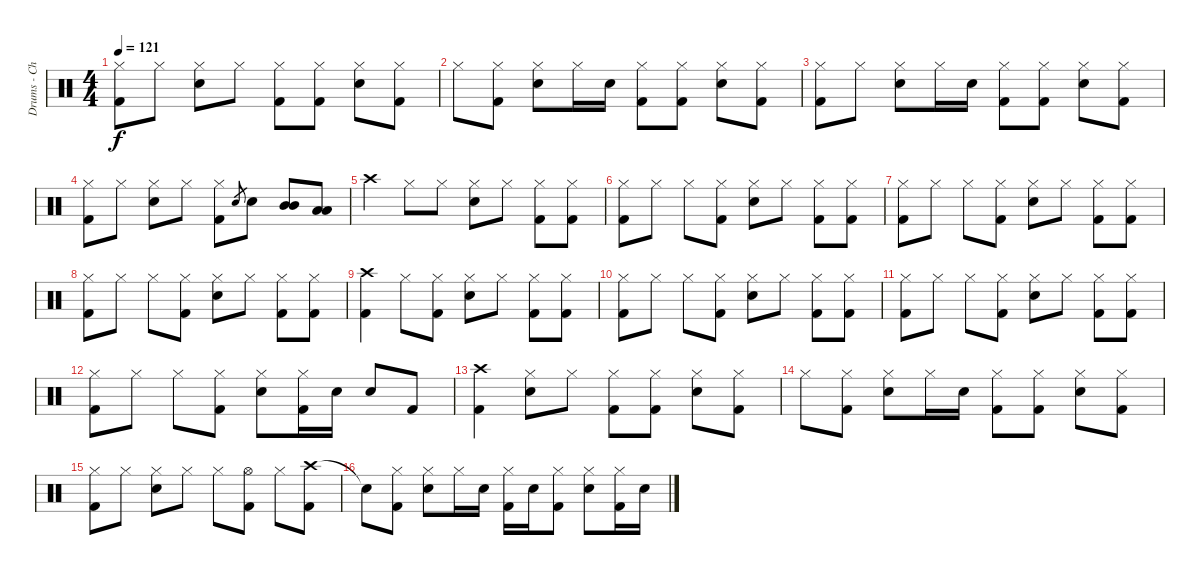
\track ("Drums - Chad" "Drums - Ch") {instrument percussion}
\staff {score}
\articulation defaults
\ts (4 4)
\tempo 121
\clef neutral
\ks c
("Hi-Hat (closed)" "Kick (hit) 2").8{dy f} "Hi-Hat (closed)".8 ("Hi-Hat (closed)" "Electric Snare (hit)").8 "Hi-Hat (closed)".8 ("Hi-Hat (closed)" "Kick (hit) 2").8 ("Hi-Hat (closed)" "Kick (hit) 2").8 ("Hi-Hat (closed)" "Electric Snare (hit)").8 ("Hi-Hat (closed)" "Kick (hit) 2").8 |
"Hi-Hat (closed)".8 ("Hi-Hat (closed)" "Kick (hit) 2").8 ("Hi-Hat (closed)" "Electric Snare (hit)").8 "Hi-Hat (closed)".16 "Electric Snare (hit)".16 ("Hi-Hat (closed)" "Kick (hit) 2").8 ("Hi-Hat (closed)" "Kick (hit) 2").8 ("Hi-Hat (closed)" "Electric Snare (hit)").8 ("Hi-Hat (closed)" "Kick (hit) 2").8 |
("Hi-Hat (closed)" "Kick (hit) 2").8 "Hi-Hat (closed)".8 ("Hi-Hat (closed)" "Electric Snare (hit)").8 "Hi-Hat (closed)".16 "Electric Snare (hit)".16 ("Hi-Hat (closed)" "Kick (hit) 2").8 ("Hi-Hat (closed)" "Kick (hit) 2").8 ("Hi-Hat (closed)" "Electric Snare (hit)").8 ("Hi-Hat (closed)" "Kick (hit) 2").8 |
("Hi-Hat (closed)" "Kick (hit) 2").8 "Hi-Hat (closed)".8 ("Hi-Hat (closed)" "Electric Snare (hit)").8 "Hi-Hat (closed)".8 ("Hi-Hat (closed)" "Kick (hit) 2").8 "Electric Snare (hit)".8{gr} "Electric Snare (hit)".8 ("Mid Tom (hit)" "Mid Tom (hit)").8 ("Low Tom (hit)" "Low Tom (hit)").8 |
"Crash high (hit)".4 "Hi-Hat (closed)".8 "Hi-Hat (closed)".8 ("Hi-Hat (closed)" "Electric Snare (hit)").8 "Hi-Hat (closed)".8 ("Hi-Hat (closed)" "Kick (hit) 2").8 ("Hi-Hat (closed)" "Kick (hit) 2").8 |
("Hi-Hat (closed)" "Kick (hit) 2").8 "Hi-Hat (closed)".8 "Hi-Hat (closed)".8 ("Hi-Hat (closed)" "Kick (hit) 2").8 ("Hi-Hat (closed)" "Electric Snare (hit)").8 "Hi-Hat (closed)".8 ("Hi-Hat (closed)" "Kick (hit) 2").8 ("Hi-Hat (closed)" "Kick (hit) 2").8 |
("Hi-Hat (closed)" "Kick (hit) 2").8 "Hi-Hat (closed)".8 "Hi-Hat (closed)".8 ("Hi-Hat (closed)" "Kick (hit) 2").8 ("Hi-Hat (closed)" "Electric Snare (hit)").8 "Hi-Hat (closed)".8 ("Hi-Hat (closed)" "Kick (hit) 2").8 ("Hi-Hat (closed)" "Kick (hit) 2").8 |
("Hi-Hat (closed)" "Kick (hit) 2").8 "Hi-Hat (closed)".8 "Hi-Hat (closed)".8 ("Hi-Hat (closed)" "Kick (hit) 2").8 ("Hi-Hat (closed)" "Electric Snare (hit)").8 "Hi-Hat (closed)".8 ("Hi-Hat (closed)" "Kick (hit) 2").8 ("Hi-Hat (closed)" "Kick (hit) 2").8 |
("Crash high (hit)" "Kick (hit) 2").4 "Hi-Hat (closed)".8 ("Hi-Hat (closed)" "Kick (hit) 2").8 ("Hi-Hat (closed)" "Electric Snare (hit)").8 "Hi-Hat (closed)".8 ("Hi-Hat (closed)" "Kick (hit) 2").8 ("Hi-Hat (closed)" "Kick (hit) 2").8 |
("Hi-Hat (closed)" "Kick (hit) 2").8 "Hi-Hat (closed)".8 "Hi-Hat (closed)".8 ("Hi-Hat (closed)" "Kick (hit) 2").8 ("Hi-Hat (closed)" "Electric Snare (hit)").8 "Hi-Hat (closed)".8 ("Hi-Hat (closed)" "Kick (hit) 2").8 ("Hi-Hat (closed)" "Kick (hit) 2").8 |
("Hi-Hat (closed)" "Kick (hit) 2").8 "Hi-Hat (closed)".8 "Hi-Hat (closed)".8 ("Hi-Hat (closed)" "Kick (hit) 2").8 ("Hi-Hat (closed)" "Electric Snare (hit)").8 "Hi-Hat (closed)".8 ("Hi-Hat (closed)" "Kick (hit) 2").8 ("Hi-Hat (closed)" "Kick (hit) 2").8 |
("Hi-Hat (closed)" "Kick (hit) 2").8 "Hi-Hat (closed)".8 "Hi-Hat (closed)".8 ("Hi-Hat (closed)" "Kick (hit) 2").8 ("Hi-Hat (closed)" "Electric Snare (hit)").8 ("Hi-Hat (closed)" "Kick (hit) 2").16 "Electric Snare (hit)".16 "Electric Snare (hit)".8 "Kick (hit) 2".8 |
("Crash high (hit)" "Kick (hit) 2").4 ("Hi-Hat (closed)" "Electric Snare (hit)").8 "Hi-Hat (closed)".8 ("Hi-Hat (closed)" "Kick (hit) 2").8 ("Hi-Hat (closed)" "Kick (hit) 2").8 ("Hi-Hat (closed)" "Electric Snare (hit)").8 ("Hi-Hat (closed)" "Kick (hit) 2").8 |
"Hi-Hat (closed)".8 ("Hi-Hat (closed)" "Kick (hit) 2").8 ("Hi-Hat (closed)" "Electric Snare (hit)").8 "Hi-Hat (closed)".16 "Electric Snare (hit)".16 ("Hi-Hat (closed)" "Kick (hit) 2").8 ("Hi-Hat (closed)" "Kick (hit) 2").8 ("Hi-Hat (closed)" "Electric Snare (hit)").8 ("Hi-Hat (closed)" "Kick (hit) 2").8 |
("Hi-Hat (closed)" "Kick (hit) 2").8 "Hi-Hat (closed)".8 ("Hi-Hat (closed)" "Electric Snare (hit)").8 "Hi-Hat (closed)".8 "Hi-Hat (closed)".8 ("Hi-Hat (open)" "Kick (hit) 2").8 "Hi-Hat (closed)".8 ("Crash high (hit)" "Kick (hit) 2").8 |
"Snare (hit)"{t}.8 ("Hi-Hat (closed)" "Kick (hit) 2").8 ("Hi-Hat (closed)" "Electric Snare (hit)").8 "Hi-Hat (closed)".16 "Electric Snare (hit)".16 ("Hi-Hat (closed)" "Kick (hit) 2").16 "Electric Snare (hit)".16 ("Hi-Hat (closed)" "Kick (hit) 2").8 ("Hi-Hat (closed)" "Electric Snare (hit)").8 ("Hi-Hat (closed)" "Kick (hit) 2").16 "Electric Snare (hit)".16
